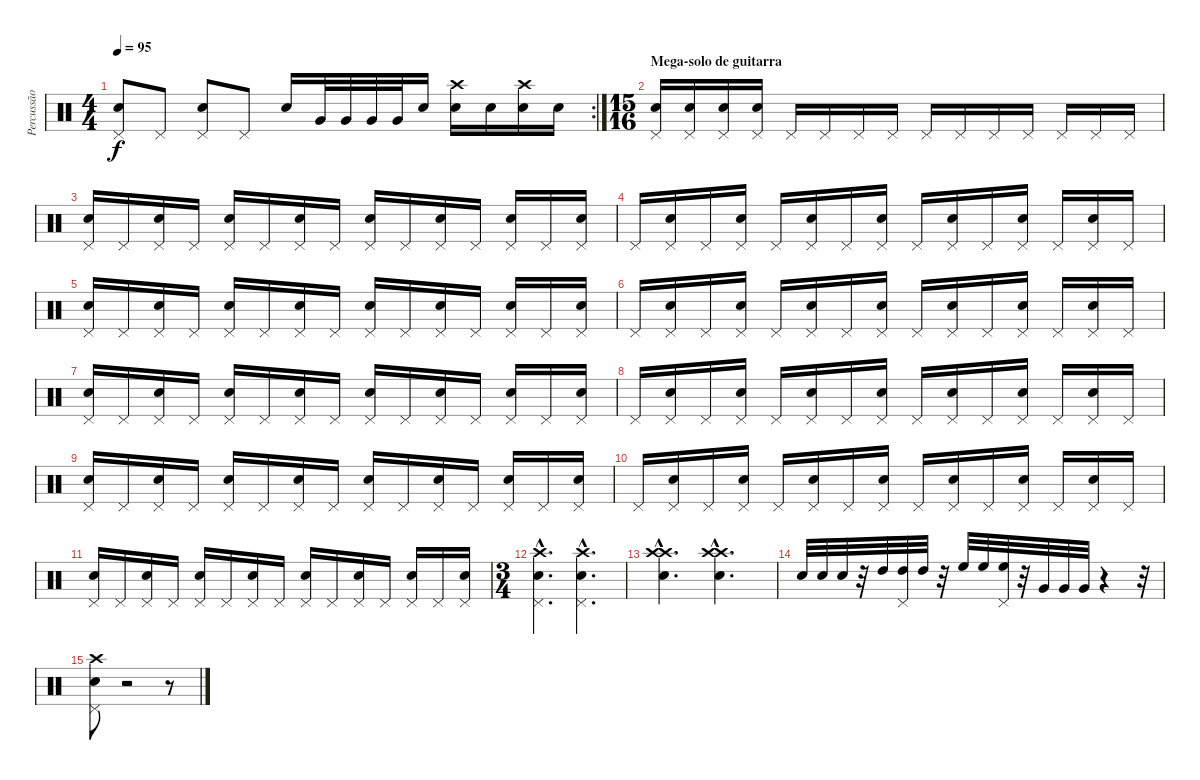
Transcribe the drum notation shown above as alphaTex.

\track ("Percussão" "Percussão") {instrument percussion}
\staff {score}
\articulation defaults
\rc 2
\ts (4 4)
\tempo 95
\clef neutral
\ks c
("Pedal Hi-Hat (hit)" "Snare (hit) 2").8{dy f} "Pedal Hi-Hat (hit)".8 ("Pedal Hi-Hat (hit)" "Snare (hit) 2").8 "Pedal Hi-Hat (hit)".8 "Snare (hit) 2".16 "Very Low Tom (hit)".32 "Very Low Tom (hit)".32 "Very Low Tom (hit)".32 "Very Low Tom (hit)".32 "Snare (hit) 2".16 ("Crash high (hit)" "Snare (hit) 2").16 "Snare (hit) 2".16 ("Crash high (hit)" "Snare (hit) 2").16 "Snare (hit) 2".16 |
\ts (15 16)
\section ("" "Mega-solo de guitarra")
("Snare (hit) 2" "Pedal Hi-Hat (hit)").16 ("Snare (hit) 2" "Pedal Hi-Hat (hit)").16 ("Snare (hit) 2" "Pedal Hi-Hat (hit)").16 ("Snare (hit) 2" "Pedal Hi-Hat (hit)").16 "Pedal Hi-Hat (hit)".16 "Pedal Hi-Hat (hit)".16 "Pedal Hi-Hat (hit)".16 "Pedal Hi-Hat (hit)".16 "Pedal Hi-Hat (hit)".16 "Pedal Hi-Hat (hit)".16 "Pedal Hi-Hat (hit)".16 "Pedal Hi-Hat (hit)".16 "Pedal Hi-Hat (hit)".16 "Pedal Hi-Hat (hit)".16 "Pedal Hi-Hat (hit)".16 |
("Snare (hit) 2" "Pedal Hi-Hat (hit)").16 "Pedal Hi-Hat (hit)".16 ("Snare (hit) 2" "Pedal Hi-Hat (hit)").16 "Pedal Hi-Hat (hit)".16 ("Snare (hit) 2" "Pedal Hi-Hat (hit)").16 "Pedal Hi-Hat (hit)".16 ("Snare (hit) 2" "Pedal Hi-Hat (hit)").16 "Pedal Hi-Hat (hit)".16 ("Snare (hit) 2" "Pedal Hi-Hat (hit)").16 "Pedal Hi-Hat (hit)".16 ("Snare (hit) 2" "Pedal Hi-Hat (hit)").16 "Pedal Hi-Hat (hit)".16 ("Snare (hit) 2" "Pedal Hi-Hat (hit)").16 "Pedal Hi-Hat (hit)".16 ("Snare (hit) 2" "Pedal Hi-Hat (hit)").16 |
"Pedal Hi-Hat (hit)".16 ("Snare (hit) 2" "Pedal Hi-Hat (hit)").16 "Pedal Hi-Hat (hit)".16 ("Snare (hit) 2" "Pedal Hi-Hat (hit)").16 "Pedal Hi-Hat (hit)".16 ("Snare (hit) 2" "Pedal Hi-Hat (hit)").16 "Pedal Hi-Hat (hit)".16 ("Snare (hit) 2" "Pedal Hi-Hat (hit)").16 "Pedal Hi-Hat (hit)".16 ("Snare (hit) 2" "Pedal Hi-Hat (hit)").16 "Pedal Hi-Hat (hit)".16 ("Snare (hit) 2" "Pedal Hi-Hat (hit)").16 "Pedal Hi-Hat (hit)".16 ("Snare (hit) 2" "Pedal Hi-Hat (hit)").16 "Pedal Hi-Hat (hit)".16 |
("Snare (hit) 2" "Pedal Hi-Hat (hit)").16 "Pedal Hi-Hat (hit)".16 ("Snare (hit) 2" "Pedal Hi-Hat (hit)").16 "Pedal Hi-Hat (hit)".16 ("Snare (hit) 2" "Pedal Hi-Hat (hit)").16 "Pedal Hi-Hat (hit)".16 ("Snare (hit) 2" "Pedal Hi-Hat (hit)").16 "Pedal Hi-Hat (hit)".16 ("Snare (hit) 2" "Pedal Hi-Hat (hit)").16 "Pedal Hi-Hat (hit)".16 ("Snare (hit) 2" "Pedal Hi-Hat (hit)").16 "Pedal Hi-Hat (hit)".16 ("Snare (hit) 2" "Pedal Hi-Hat (hit)").16 "Pedal Hi-Hat (hit)".16 ("Snare (hit) 2" "Pedal Hi-Hat (hit)").16 |
"Pedal Hi-Hat (hit)".16 ("Snare (hit) 2" "Pedal Hi-Hat (hit)").16 "Pedal Hi-Hat (hit)".16 ("Snare (hit) 2" "Pedal Hi-Hat (hit)").16 "Pedal Hi-Hat (hit)".16 ("Snare (hit) 2" "Pedal Hi-Hat (hit)").16 "Pedal Hi-Hat (hit)".16 ("Snare (hit) 2" "Pedal Hi-Hat (hit)").16 "Pedal Hi-Hat (hit)".16 ("Snare (hit) 2" "Pedal Hi-Hat (hit)").16 "Pedal Hi-Hat (hit)".16 ("Snare (hit) 2" "Pedal Hi-Hat (hit)").16 "Pedal Hi-Hat (hit)".16 ("Snare (hit) 2" "Pedal Hi-Hat (hit)").16 "Pedal Hi-Hat (hit)".16 |
("Snare (hit) 2" "Pedal Hi-Hat (hit)").16 "Pedal Hi-Hat (hit)".16 ("Snare (hit) 2" "Pedal Hi-Hat (hit)").16 "Pedal Hi-Hat (hit)".16 ("Snare (hit) 2" "Pedal Hi-Hat (hit)").16 "Pedal Hi-Hat (hit)".16 ("Snare (hit) 2" "Pedal Hi-Hat (hit)").16 "Pedal Hi-Hat (hit)".16 ("Snare (hit) 2" "Pedal Hi-Hat (hit)").16 "Pedal Hi-Hat (hit)".16 ("Snare (hit) 2" "Pedal Hi-Hat (hit)").16 "Pedal Hi-Hat (hit)".16 ("Snare (hit) 2" "Pedal Hi-Hat (hit)").16 "Pedal Hi-Hat (hit)".16 ("Snare (hit) 2" "Pedal Hi-Hat (hit)").16 |
"Pedal Hi-Hat (hit)".16 ("Snare (hit) 2" "Pedal Hi-Hat (hit)").16 "Pedal Hi-Hat (hit)".16 ("Snare (hit) 2" "Pedal Hi-Hat (hit)").16 "Pedal Hi-Hat (hit)".16 ("Snare (hit) 2" "Pedal Hi-Hat (hit)").16 "Pedal Hi-Hat (hit)".16 ("Snare (hit) 2" "Pedal Hi-Hat (hit)").16 "Pedal Hi-Hat (hit)".16 ("Snare (hit) 2" "Pedal Hi-Hat (hit)").16 "Pedal Hi-Hat (hit)".16 ("Snare (hit) 2" "Pedal Hi-Hat (hit)").16 "Pedal Hi-Hat (hit)".16 ("Snare (hit) 2" "Pedal Hi-Hat (hit)").16 "Pedal Hi-Hat (hit)".16 |
("Snare (hit) 2" "Pedal Hi-Hat (hit)").16 "Pedal Hi-Hat (hit)".16 ("Snare (hit) 2" "Pedal Hi-Hat (hit)").16 "Pedal Hi-Hat (hit)".16 ("Snare (hit) 2" "Pedal Hi-Hat (hit)").16 "Pedal Hi-Hat (hit)".16 ("Snare (hit) 2" "Pedal Hi-Hat (hit)").16 "Pedal Hi-Hat (hit)".16 ("Snare (hit) 2" "Pedal Hi-Hat (hit)").16 "Pedal Hi-Hat (hit)".16 ("Snare (hit) 2" "Pedal Hi-Hat (hit)").16 "Pedal Hi-Hat (hit)".16 ("Snare (hit) 2" "Pedal Hi-Hat (hit)").16 "Pedal Hi-Hat (hit)".16 ("Snare (hit) 2" "Pedal Hi-Hat (hit)").16 |
"Pedal Hi-Hat (hit)".16 ("Snare (hit) 2" "Pedal Hi-Hat (hit)").16 "Pedal Hi-Hat (hit)".16 ("Snare (hit) 2" "Pedal Hi-Hat (hit)").16 "Pedal Hi-Hat (hit)".16 ("Snare (hit) 2" "Pedal Hi-Hat (hit)").16 "Pedal Hi-Hat (hit)".16 ("Snare (hit) 2" "Pedal Hi-Hat (hit)").16 "Pedal Hi-Hat (hit)".16 ("Snare (hit) 2" "Pedal Hi-Hat (hit)").16 "Pedal Hi-Hat (hit)".16 ("Snare (hit) 2" "Pedal Hi-Hat (hit)").16 "Pedal Hi-Hat (hit)".16 ("Snare (hit) 2" "Pedal Hi-Hat (hit)").16 "Pedal Hi-Hat (hit)".16 |
("Snare (hit) 2" "Pedal Hi-Hat (hit)").16 "Pedal Hi-Hat (hit)".16 ("Snare (hit) 2" "Pedal Hi-Hat (hit)").16 "Pedal Hi-Hat (hit)".16 ("Snare (hit) 2" "Pedal Hi-Hat (hit)").16 "Pedal Hi-Hat (hit)".16 ("Snare (hit) 2" "Pedal Hi-Hat (hit)").16 "Pedal Hi-Hat (hit)".16 ("Snare (hit) 2" "Pedal Hi-Hat (hit)").16 "Pedal Hi-Hat (hit)".16 ("Snare (hit) 2" "Pedal Hi-Hat (hit)").16 "Pedal Hi-Hat (hit)".16 ("Snare (hit) 2" "Pedal Hi-Hat (hit)").16 "Pedal Hi-Hat (hit)".16 ("Snare (hit) 2" "Pedal Hi-Hat (hit)").16 |
\ts (3 4)
("Snare (hit) 2"{hac} "Pedal Hi-Hat (hit)"{hac} "Crash high (hit)"{hac}).4{d} ("Snare (hit) 2"{hac} "Pedal Hi-Hat (hit)"{hac} "Crash high (hit)"{hac}).4{d} |
("Crash high (hit)"{hac} "Snare (hit) 2"{hac} "Crash high (hit)"{hac}).4{d} ("Crash high (hit)"{hac} "Snare (hit) 2"{hac} "Crash high (hit)"{hac}).4{d} |
"Snare (hit) 2".32 "Snare (hit) 2".32 "Snare (hit) 2".32 r.32 "High Tom (hit)".32 ("High Tom (hit)" "Pedal Hi-Hat (hit)").32 "High Tom (hit)".32 r.32 "High Floor Tom (hit)".32 "High Floor Tom (hit)".32 ("High Floor Tom (hit)" "Pedal Hi-Hat (hit)").32 r.32 "Very Low Tom (hit)".32 "Very Low Tom (hit)".32 "Very Low Tom (hit)".32 r.4 r.32 |
("Crash high (hit)" "Snare (hit) 2" "Pedal Hi-Hat (hit)").8 r.2 r.8
